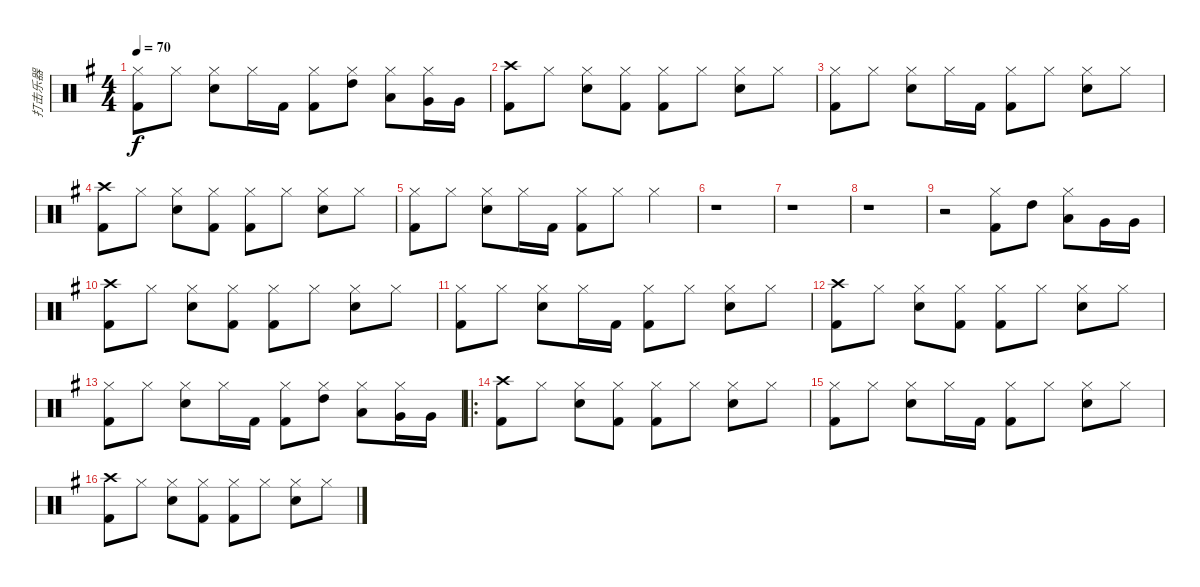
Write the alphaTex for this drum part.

\track ("打击乐器" "打击乐器") {instrument percussion}
\staff {score}
\articulation defaults
\ts (4 4)
\tempo 70
\clef neutral
\ks g
("Hi-Hat (closed)" "Kick (hit) 2").8{dy f} "Hi-Hat (closed)".8 ("Hi-Hat (closed)" "Snare (hit) 2").8 "Hi-Hat (closed)".16 "Kick (hit) 2".16 ("Hi-Hat (closed)" "Kick (hit) 2").8 ("Hi-Hat (closed)" "High Tom (hit)").8 ("Hi-Hat (closed)" "Low Tom (hit)").8 ("Hi-Hat (closed)" "Very Low Tom (hit)").16 "Very Low Tom (hit)".16 |
("Crash high (hit)" "Kick (hit) 2").8 "Hi-Hat (closed)".8 ("Hi-Hat (closed)" "Snare (hit) 2").8 ("Hi-Hat (closed)" "Kick (hit) 2").8 ("Hi-Hat (closed)" "Kick (hit) 2").8 "Hi-Hat (closed)".8 ("Hi-Hat (closed)" "Snare (hit) 2").8 "Hi-Hat (closed)".8 |
("Hi-Hat (closed)" "Kick (hit) 2").8 "Hi-Hat (closed)".8 ("Hi-Hat (closed)" "Snare (hit) 2").8 "Hi-Hat (closed)".16 "Kick (hit) 2".16 ("Hi-Hat (closed)" "Kick (hit) 2").8 "Hi-Hat (closed)".8 ("Hi-Hat (closed)" "Snare (hit) 2").8 "Hi-Hat (closed)".8 |
("Crash high (hit)" "Kick (hit) 2").8 "Hi-Hat (closed)".8 ("Hi-Hat (closed)" "Snare (hit) 2").8 ("Hi-Hat (closed)" "Kick (hit) 2").8 ("Hi-Hat (closed)" "Kick (hit) 2").8 "Hi-Hat (closed)".8 ("Hi-Hat (closed)" "Snare (hit) 2").8 "Hi-Hat (closed)".8 |
("Hi-Hat (closed)" "Kick (hit) 2").8 "Hi-Hat (closed)".8 ("Hi-Hat (closed)" "Snare (hit) 2").8 "Hi-Hat (closed)".16 "Kick (hit) 2".16 ("Hi-Hat (closed)" "Kick (hit) 2").8 "Hi-Hat (closed)".8 "Hi-Hat (closed)".4 |
r.1 |
r.1 |
r.1 |
r.2 ("Kick (hit) 2" "Hi-Hat (closed)").8 "High Tom (hit)".8 ("Low Tom (hit)" "Hi-Hat (closed)").8 "Very Low Tom (hit)".16 "Very Low Tom (hit)".16 |
("Crash high (hit)" "Kick (hit) 2").8 "Hi-Hat (closed)".8 ("Hi-Hat (closed)" "Snare (hit) 2").8 ("Hi-Hat (closed)" "Kick (hit) 2").8 ("Hi-Hat (closed)" "Kick (hit) 2").8 "Hi-Hat (closed)".8 ("Hi-Hat (closed)" "Snare (hit) 2").8 "Hi-Hat (closed)".8 |
("Hi-Hat (closed)" "Kick (hit) 2").8 "Hi-Hat (closed)".8 ("Hi-Hat (closed)" "Snare (hit) 2").8 "Hi-Hat (closed)".16 "Kick (hit) 2".16 ("Hi-Hat (closed)" "Kick (hit) 2").8 "Hi-Hat (closed)".8 ("Hi-Hat (closed)" "Snare (hit) 2").8 "Hi-Hat (closed)".8 |
("Crash high (hit)" "Kick (hit) 2").8 "Hi-Hat (closed)".8 ("Hi-Hat (closed)" "Snare (hit) 2").8 ("Hi-Hat (closed)" "Kick (hit) 2").8 ("Hi-Hat (closed)" "Kick (hit) 2").8 "Hi-Hat (closed)".8 ("Hi-Hat (closed)" "Snare (hit) 2").8 "Hi-Hat (closed)".8 |
("Hi-Hat (closed)" "Kick (hit) 2").8 "Hi-Hat (closed)".8 ("Hi-Hat (closed)" "Snare (hit) 2").8 "Hi-Hat (closed)".16 "Kick (hit) 2".16 ("Hi-Hat (closed)" "Kick (hit) 2").8 ("Hi-Hat (closed)" "High Tom (hit)").8 ("Hi-Hat (closed)" "Low Tom (hit)").8 ("Hi-Hat (closed)" "Very Low Tom (hit)").16 "Very Low Tom (hit)".16 |
\ro
("Crash high (hit)" "Kick (hit) 2").8 "Hi-Hat (closed)".8 ("Hi-Hat (closed)" "Snare (hit) 2").8 ("Hi-Hat (closed)" "Kick (hit) 2").8 ("Hi-Hat (closed)" "Kick (hit) 2").8 "Hi-Hat (closed)".8 ("Hi-Hat (closed)" "Snare (hit) 2").8 "Hi-Hat (closed)".8 |
("Hi-Hat (closed)" "Kick (hit) 2").8 "Hi-Hat (closed)".8 ("Hi-Hat (closed)" "Snare (hit) 2").8 "Hi-Hat (closed)".16 "Kick (hit) 2".16 ("Hi-Hat (closed)" "Kick (hit) 2").8 "Hi-Hat (closed)".8 ("Hi-Hat (closed)" "Snare (hit) 2").8 "Hi-Hat (closed)".8 |
("Crash high (hit)" "Kick (hit) 2").8 "Hi-Hat (closed)".8 ("Hi-Hat (closed)" "Snare (hit) 2").8 ("Hi-Hat (closed)" "Kick (hit) 2").8 ("Hi-Hat (closed)" "Kick (hit) 2").8 "Hi-Hat (closed)".8 ("Hi-Hat (closed)" "Snare (hit) 2").8 "Hi-Hat (closed)".8
